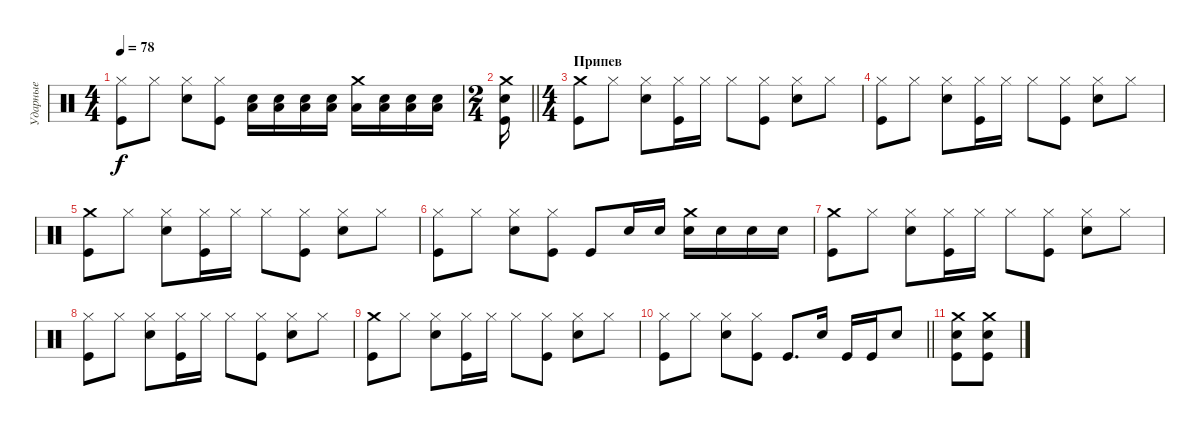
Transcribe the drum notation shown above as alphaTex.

\track ("Ударные" "Ударные") {instrument percussion}
\staff {score}
\articulation defaults
\ts (4 4)
\tempo 78
\clef neutral
\ks c
("Hi-Hat (closed)" "Kick (hit)").8{dy f} "Hi-Hat (closed)".8 ("Hi-Hat (closed)" "Snare (hit) 2").8 ("Hi-Hat (closed)" "Kick (hit)").8 ("Low Floor Tom (hit)" "Snare (hit) 2").16 ("Low Floor Tom (hit)" "Snare (hit) 2").16 ("Low Floor Tom (hit)" "Snare (hit) 2").16 ("Low Floor Tom (hit)" "Snare (hit) 2").16 ("Low Floor Tom (hit)" "Crash medium (hit)").16 ("Low Floor Tom (hit)" "Snare (hit) 2").16 ("Low Floor Tom (hit)" "Snare (hit) 2").16 ("Low Floor Tom (hit)" "Snare (hit) 2").16 |
\ts (2 4)
\barLineRight lightlight
("Kick (hit)" "Crash medium (hit)" "Snare (hit) 2").16 |
\ts (4 4)
\section ("" "Припев")
("Crash medium (hit)" "Kick (hit)").8 "Hi-Hat (closed)".8 ("Hi-Hat (closed)" "Snare (hit) 2").8 ("Hi-Hat (closed)" "Kick (hit)").16 "Hi-Hat (closed)".16 "Hi-Hat (closed)".8 ("Hi-Hat (closed)" "Kick (hit)").8 ("Hi-Hat (closed)" "Snare (hit) 2").8 "Hi-Hat (closed)".8 |
("Hi-Hat (closed)" "Kick (hit)").8 "Hi-Hat (closed)".8 ("Hi-Hat (closed)" "Snare (hit) 2").8 ("Hi-Hat (closed)" "Kick (hit)").16 "Hi-Hat (closed)".16 "Hi-Hat (closed)".8 ("Hi-Hat (closed)" "Kick (hit)").8 ("Hi-Hat (closed)" "Snare (hit) 2").8 "Hi-Hat (closed)".8 |
("Crash medium (hit)" "Kick (hit)").8 "Hi-Hat (closed)".8 ("Hi-Hat (closed)" "Snare (hit) 2").8 ("Hi-Hat (closed)" "Kick (hit)").16 "Hi-Hat (closed)".16 "Hi-Hat (closed)".8 ("Hi-Hat (closed)" "Kick (hit)").8 ("Hi-Hat (closed)" "Snare (hit) 2").8 "Hi-Hat (closed)".8 |
("Hi-Hat (closed)" "Kick (hit)").8 "Hi-Hat (closed)".8 ("Hi-Hat (closed)" "Snare (hit) 2").8 ("Hi-Hat (closed)" "Kick (hit)").8 "Kick (hit)".8 "Snare (hit) 2".16 "Snare (hit) 2".16 ("Snare (hit) 2" "Crash medium (hit)").16 "Snare (hit) 2".16 "Snare (hit) 2".16 "Snare (hit) 2".16 |
("Crash medium (hit)" "Kick (hit)").8 "Hi-Hat (closed)".8 ("Hi-Hat (closed)" "Snare (hit) 2").8 ("Hi-Hat (closed)" "Kick (hit)").16 "Hi-Hat (closed)".16 "Hi-Hat (closed)".8 ("Hi-Hat (closed)" "Kick (hit)").8 ("Hi-Hat (closed)" "Snare (hit) 2").8 "Hi-Hat (closed)".8 |
("Hi-Hat (closed)" "Kick (hit)").8 "Hi-Hat (closed)".8 ("Hi-Hat (closed)" "Snare (hit) 2").8 ("Hi-Hat (closed)" "Kick (hit)").16 "Hi-Hat (closed)".16 "Hi-Hat (closed)".8 ("Hi-Hat (closed)" "Kick (hit)").8 ("Hi-Hat (closed)" "Snare (hit) 2").8 "Hi-Hat (closed)".8 |
("Crash medium (hit)" "Kick (hit)").8 "Hi-Hat (closed)".8 ("Hi-Hat (closed)" "Snare (hit) 2").8 ("Hi-Hat (closed)" "Kick (hit)").16 "Hi-Hat (closed)".16 "Hi-Hat (closed)".8 ("Hi-Hat (closed)" "Kick (hit)").8 ("Hi-Hat (closed)" "Snare (hit) 2").8 "Hi-Hat (closed)".8 |
\barLineRight lightlight
("Hi-Hat (closed)" "Kick (hit)").8 "Hi-Hat (closed)".8 ("Hi-Hat (closed)" "Snare (hit) 2").8 ("Hi-Hat (closed)" "Kick (hit)").8 "Kick (hit)".8{d} "Snare (hit) 2".16 "Kick (hit)".16 "Kick (hit)".16 "Snare (hit) 2".8 |
("Kick (hit)" "Snare (hit) 2" "Crash medium (hit)").8 ("Kick (hit)" "Snare (hit) 2" "Crash medium (hit)").8
